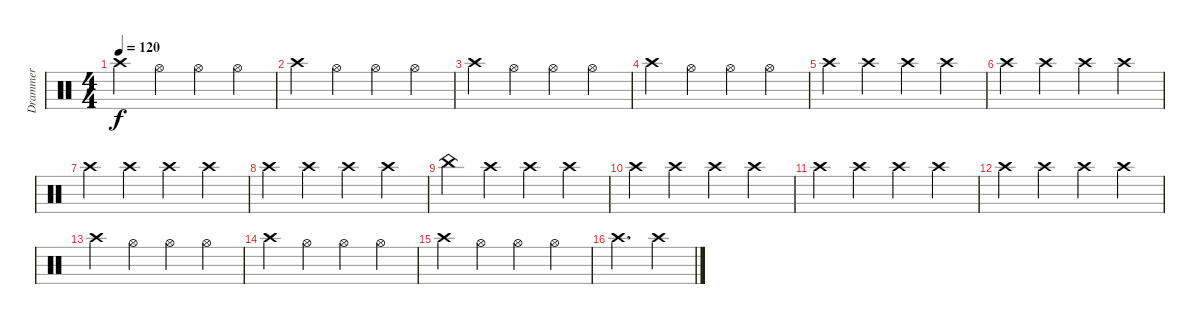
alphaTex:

\track ("Drammer" "Drammer") {instrument percussion}
\staff {score}
\articulation defaults
\ts (4 4)
\tempo 120
\clef neutral
\ks c "Crash high (hit)".4{dy f} "Hi-Hat (open)".4 "Hi-Hat (open)".4 "Hi-Hat (open)".4
|
"Crash high (hit)".4 "Hi-Hat (open)".4 "Hi-Hat (open)".4 "Hi-Hat (open)".4 |
"Crash high (hit)".4 "Hi-Hat (open)".4 "Hi-Hat (open)".4 "Hi-Hat (open)".4 |
"Crash high (hit)".4 "Hi-Hat (open)".4 "Hi-Hat (open)".4 "Hi-Hat (open)".4 |
"Crash high (hit)".4 "Crash high (hit)".4 "Crash high (hit)".4 "Crash high (hit)".4 |
"Crash high (hit)".4 "Crash high (hit)".4 "Crash high (hit)".4 "Crash high (hit)".4 |
"Crash high (hit)".4 "Crash high (hit)".4 "Crash high (hit)".4 "Crash high (hit)".4 |
"Crash high (hit)".4 "Crash high (hit)".4 "Crash high (hit)".4 "Crash high (hit)".4 |
"China (hit)".4 "Crash high (hit)".4 "Crash high (hit)".4 "Crash high (hit)".4 |
"Crash high (hit)".4 "Crash high (hit)".4 "Crash high (hit)".4 "Crash high (hit)".4 |
"Crash high (hit)".4 "Crash high (hit)".4 "Crash high (hit)".4 "Crash high (hit)".4 |
"Crash high (hit)".4 "Crash high (hit)".4 "Crash high (hit)".4 "Crash high (hit)".4 |
"Crash high (hit)".4 "Hi-Hat (open)".4 "Hi-Hat (open)".4 "Hi-Hat (open)".4 |
"Crash high (hit)".4 "Hi-Hat (open)".4 "Hi-Hat (open)".4 "Hi-Hat (open)".4 |
"Crash high (hit)".4 "Hi-Hat (open)".4 "Hi-Hat (open)".4 "Hi-Hat (open)".4 |
"Crash high (hit)".4{d} "Crash high (hit)".4
